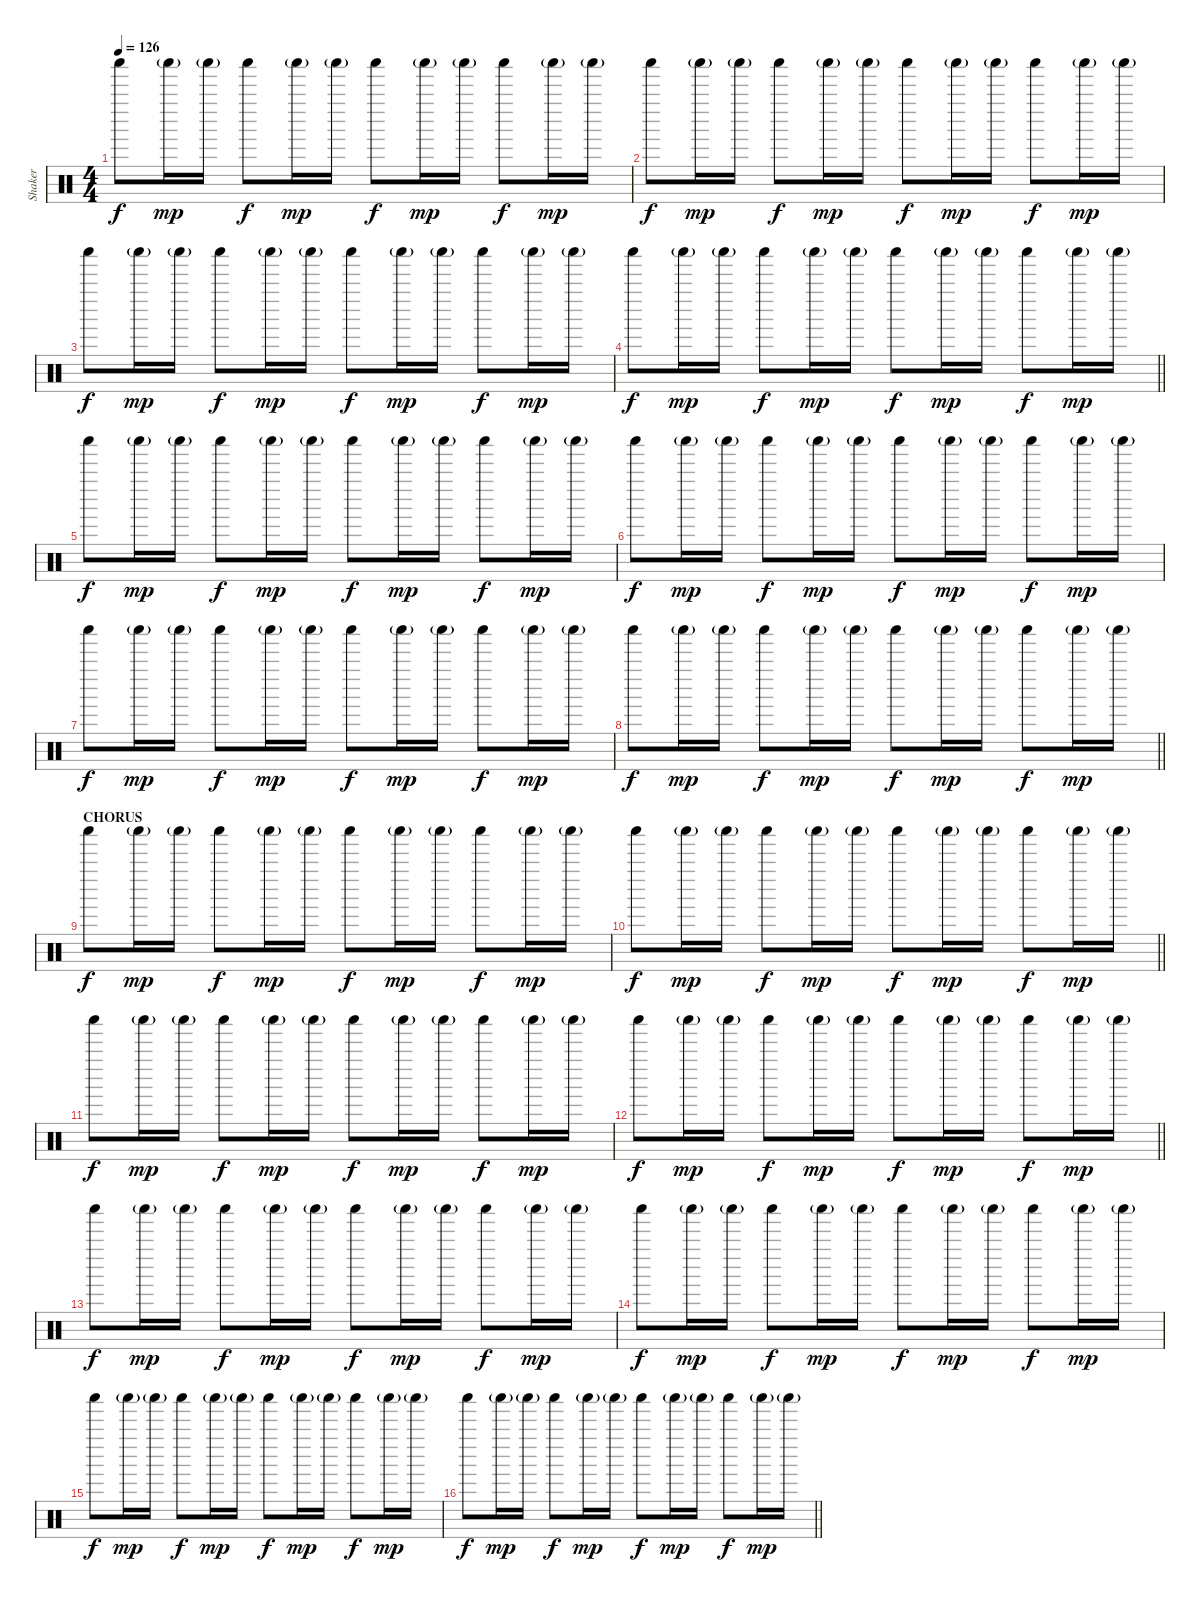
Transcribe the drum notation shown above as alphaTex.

\track ("Shaker" "Shaker") {instrument percussion}
\staff {score}
\articulation defaults
\ts (4 4)
\tempo 126
\clef neutral
\ks c "Shaker (hit)".8{dy f} "Shaker (hit)"{g}.16{dy mp} "Shaker (hit)"{g}.16 "Shaker (hit)".8{dy f} "Shaker (hit)"{g}.16{dy mp} "Shaker (hit)"{g}.16 "Shaker (hit)".8{dy f} "Shaker (hit)"{g}.16{dy mp} "Shaker (hit)"{g}.16 "Shaker (hit)".8{dy f} "Shaker (hit)"{g}.16{dy mp} "Shaker (hit)"{g}.16
|
"Shaker (hit)".8{dy f} "Shaker (hit)"{g}.16{dy mp} "Shaker (hit)"{g}.16 "Shaker (hit)".8{dy f} "Shaker (hit)"{g}.16{dy mp} "Shaker (hit)"{g}.16 "Shaker (hit)".8{dy f} "Shaker (hit)"{g}.16{dy mp} "Shaker (hit)"{g}.16 "Shaker (hit)".8{dy f} "Shaker (hit)"{g}.16{dy mp} "Shaker (hit)"{g}.16 |
"Shaker (hit)".8{dy f} "Shaker (hit)"{g}.16{dy mp} "Shaker (hit)"{g}.16 "Shaker (hit)".8{dy f} "Shaker (hit)"{g}.16{dy mp} "Shaker (hit)"{g}.16 "Shaker (hit)".8{dy f} "Shaker (hit)"{g}.16{dy mp} "Shaker (hit)"{g}.16 "Shaker (hit)".8{dy f} "Shaker (hit)"{g}.16{dy mp} "Shaker (hit)"{g}.16 |
\barLineRight lightlight "Shaker (hit)".8{dy f} "Shaker (hit)"{g}.16{dy mp} "Shaker (hit)"{g}.16 "Shaker (hit)".8{dy f} "Shaker (hit)"{g}.16{dy mp} "Shaker (hit)"{g}.16 "Shaker (hit)".8{dy f} "Shaker (hit)"{g}.16{dy mp} "Shaker (hit)"{g}.16 "Shaker (hit)".8{dy f} "Shaker (hit)"{g}.16{dy mp} "Shaker (hit)"{g}.16
|
"Shaker (hit)".8{dy f} "Shaker (hit)"{g}.16{dy mp} "Shaker (hit)"{g}.16 "Shaker (hit)".8{dy f} "Shaker (hit)"{g}.16{dy mp} "Shaker (hit)"{g}.16 "Shaker (hit)".8{dy f} "Shaker (hit)"{g}.16{dy mp} "Shaker (hit)"{g}.16 "Shaker (hit)".8{dy f} "Shaker (hit)"{g}.16{dy mp} "Shaker (hit)"{g}.16 |
"Shaker (hit)".8{dy f} "Shaker (hit)"{g}.16{dy mp} "Shaker (hit)"{g}.16 "Shaker (hit)".8{dy f} "Shaker (hit)"{g}.16{dy mp} "Shaker (hit)"{g}.16 "Shaker (hit)".8{dy f} "Shaker (hit)"{g}.16{dy mp} "Shaker (hit)"{g}.16 "Shaker (hit)".8{dy f} "Shaker (hit)"{g}.16{dy mp} "Shaker (hit)"{g}.16 |
"Shaker (hit)".8{dy f} "Shaker (hit)"{g}.16{dy mp} "Shaker (hit)"{g}.16 "Shaker (hit)".8{dy f} "Shaker (hit)"{g}.16{dy mp} "Shaker (hit)"{g}.16 "Shaker (hit)".8{dy f} "Shaker (hit)"{g}.16{dy mp} "Shaker (hit)"{g}.16 "Shaker (hit)".8{dy f} "Shaker (hit)"{g}.16{dy mp} "Shaker (hit)"{g}.16 |
\barLineRight lightlight "Shaker (hit)".8{dy f} "Shaker (hit)"{g}.16{dy mp} "Shaker (hit)"{g}.16 "Shaker (hit)".8{dy f} "Shaker (hit)"{g}.16{dy mp} "Shaker (hit)"{g}.16 "Shaker (hit)".8{dy f} "Shaker (hit)"{g}.16{dy mp} "Shaker (hit)"{g}.16 "Shaker (hit)".8{dy f} "Shaker (hit)"{g}.16{dy mp} "Shaker (hit)"{g}.16
|
\section ("" "CHORUS")
"Shaker (hit)".8{dy f} "Shaker (hit)"{g}.16{dy mp} "Shaker (hit)"{g}.16 "Shaker (hit)".8{dy f} "Shaker (hit)"{g}.16{dy mp} "Shaker (hit)"{g}.16 "Shaker (hit)".8{dy f} "Shaker (hit)"{g}.16{dy mp} "Shaker (hit)"{g}.16 "Shaker (hit)".8{dy f} "Shaker (hit)"{g}.16{dy mp} "Shaker (hit)"{g}.16 |
\barLineRight lightlight "Shaker (hit)".8{dy f} "Shaker (hit)"{g}.16{dy mp} "Shaker (hit)"{g}.16 "Shaker (hit)".8{dy f} "Shaker (hit)"{g}.16{dy mp} "Shaker (hit)"{g}.16 "Shaker (hit)".8{dy f} "Shaker (hit)"{g}.16{dy mp} "Shaker (hit)"{g}.16 "Shaker (hit)".8{dy f} "Shaker (hit)"{g}.16{dy mp} "Shaker (hit)"{g}.16
|
"Shaker (hit)".8{dy f} "Shaker (hit)"{g}.16{dy mp} "Shaker (hit)"{g}.16 "Shaker (hit)".8{dy f} "Shaker (hit)"{g}.16{dy mp} "Shaker (hit)"{g}.16 "Shaker (hit)".8{dy f} "Shaker (hit)"{g}.16{dy mp} "Shaker (hit)"{g}.16 "Shaker (hit)".8{dy f} "Shaker (hit)"{g}.16{dy mp} "Shaker (hit)"{g}.16 |
\barLineRight lightlight "Shaker (hit)".8{dy f} "Shaker (hit)"{g}.16{dy mp} "Shaker (hit)"{g}.16 "Shaker (hit)".8{dy f} "Shaker (hit)"{g}.16{dy mp} "Shaker (hit)"{g}.16 "Shaker (hit)".8{dy f} "Shaker (hit)"{g}.16{dy mp} "Shaker (hit)"{g}.16 "Shaker (hit)".8{dy f} "Shaker (hit)"{g}.16{dy mp} "Shaker (hit)"{g}.16
|
"Shaker (hit)".8{dy f} "Shaker (hit)"{g}.16{dy mp} "Shaker (hit)"{g}.16 "Shaker (hit)".8{dy f} "Shaker (hit)"{g}.16{dy mp} "Shaker (hit)"{g}.16 "Shaker (hit)".8{dy f} "Shaker (hit)"{g}.16{dy mp} "Shaker (hit)"{g}.16 "Shaker (hit)".8{dy f} "Shaker (hit)"{g}.16{dy mp} "Shaker (hit)"{g}.16 |
"Shaker (hit)".8{dy f} "Shaker (hit)"{g}.16{dy mp} "Shaker (hit)"{g}.16 "Shaker (hit)".8{dy f} "Shaker (hit)"{g}.16{dy mp} "Shaker (hit)"{g}.16 "Shaker (hit)".8{dy f} "Shaker (hit)"{g}.16{dy mp} "Shaker (hit)"{g}.16 "Shaker (hit)".8{dy f} "Shaker (hit)"{g}.16{dy mp} "Shaker (hit)"{g}.16 |
"Shaker (hit)".8{dy f} "Shaker (hit)"{g}.16{dy mp} "Shaker (hit)"{g}.16 "Shaker (hit)".8{dy f} "Shaker (hit)"{g}.16{dy mp} "Shaker (hit)"{g}.16 "Shaker (hit)".8{dy f} "Shaker (hit)"{g}.16{dy mp} "Shaker (hit)"{g}.16 "Shaker (hit)".8{dy f} "Shaker (hit)"{g}.16{dy mp} "Shaker (hit)"{g}.16 |
\barLineRight lightlight "Shaker (hit)".8{dy f} "Shaker (hit)"{g}.16{dy mp} "Shaker (hit)"{g}.16 "Shaker (hit)".8{dy f} "Shaker (hit)"{g}.16{dy mp} "Shaker (hit)"{g}.16 "Shaker (hit)".8{dy f} "Shaker (hit)"{g}.16{dy mp} "Shaker (hit)"{g}.16 "Shaker (hit)".8{dy f} "Shaker (hit)"{g}.16{dy mp} "Shaker (hit)"{g}.16
